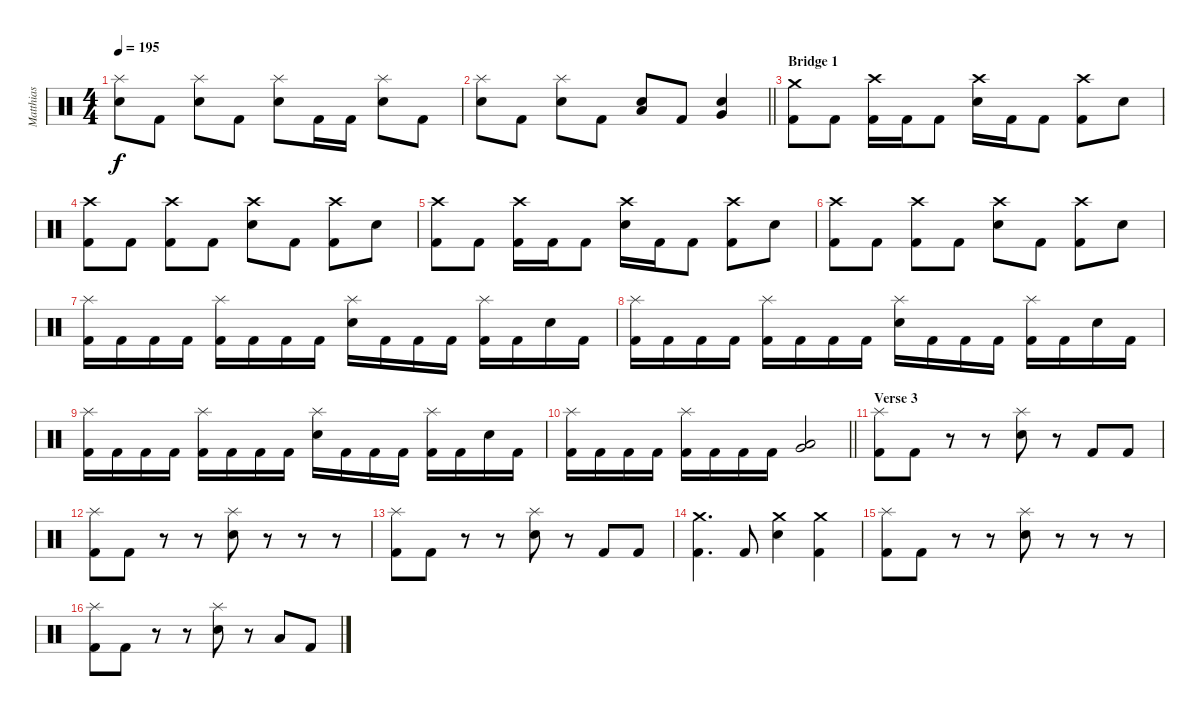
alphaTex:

\track ("Matthias" "Matthias") {instrument percussion}
\staff {score}
\articulation defaults
\ts (4 4)
\tempo 195
\clef neutral
\ks c
("Splash (hit)" "Electric Snare (hit)").8{dy f} "Kick (hit) 2".8 ("Splash (hit)" "Electric Snare (hit)").8 "Kick (hit) 2".8 ("Splash (hit)" "Electric Snare (hit)").8 "Kick (hit) 2".16 "Kick (hit) 2".16 ("Splash (hit)" "Electric Snare (hit)").8 "Kick (hit) 2".8 |
\barLineRight lightlight
("Splash (hit)" "Electric Snare (hit)").8 "Kick (hit) 2".8 ("Splash (hit)" "Electric Snare (hit)").8 "Kick (hit) 2".8 ("Low Tom (hit)" "Electric Snare (hit)").8 "Kick (hit) 2".8 ("Very Low Tom (hit)" "Electric Snare (hit)").4 |
\section ("" "Bridge 1")
("Crash medium (hit)" "Kick (hit) 2").8 "Kick (hit) 2".8 ("Crash high (hit)" "Kick (hit) 2").16 "Kick (hit) 2".16 "Kick (hit) 2".8 ("Crash high (hit)" "Electric Snare (hit)").16 "Kick (hit) 2".16 "Kick (hit) 2".8 ("Crash high (hit)" "Kick (hit) 2").8 "Electric Snare (hit)".8 |
("Crash high (hit)" "Kick (hit) 2").8 "Kick (hit) 2".8 ("Crash high (hit)" "Kick (hit) 2").8 "Kick (hit) 2".8 ("Crash high (hit)" "Electric Snare (hit)").8 "Kick (hit) 2".8 ("Crash high (hit)" "Kick (hit) 2").8 "Electric Snare (hit)".8 |
("Crash high (hit)" "Kick (hit) 2").8 "Kick (hit) 2".8 ("Crash high (hit)" "Kick (hit) 2").16 "Kick (hit) 2".16 "Kick (hit) 2".8 ("Crash high (hit)" "Electric Snare (hit)").16 "Kick (hit) 2".16 "Kick (hit) 2".8 ("Crash high (hit)" "Kick (hit) 2").8 "Electric Snare (hit)".8 |
("Crash high (hit)" "Kick (hit) 2").8 "Kick (hit) 2".8 ("Crash high (hit)" "Kick (hit) 2").8 "Kick (hit) 2".8 ("Crash high (hit)" "Electric Snare (hit)").8 "Kick (hit) 2".8 ("Crash high (hit)" "Kick (hit) 2").8 "Electric Snare (hit)".8 |
("Splash (hit)" "Kick (hit) 2").16 "Kick (hit) 2".16 "Kick (hit) 2".16 "Kick (hit) 2".16 ("Splash (hit)" "Kick (hit) 2").16 "Kick (hit) 2".16 "Kick (hit) 2".16 "Kick (hit) 2".16 ("Splash (hit)" "Electric Snare (hit)").16 "Kick (hit) 2".16 "Kick (hit) 2".16 "Kick (hit) 2".16 ("Splash (hit)" "Kick (hit) 2").16 "Kick (hit) 2".16 "Electric Snare (hit)".16 "Kick (hit) 2".16 |
("Splash (hit)" "Kick (hit) 2").16 "Kick (hit) 2".16 "Kick (hit) 2".16 "Kick (hit) 2".16 ("Splash (hit)" "Kick (hit) 2").16 "Kick (hit) 2".16 "Kick (hit) 2".16 "Kick (hit) 2".16 ("Splash (hit)" "Electric Snare (hit)").16 "Kick (hit) 2".16 "Kick (hit) 2".16 "Kick (hit) 2".16 ("Splash (hit)" "Kick (hit) 2").16 "Kick (hit) 2".16 "Electric Snare (hit)".16 "Kick (hit) 2".16 |
("Splash (hit)" "Kick (hit) 2").16 "Kick (hit) 2".16 "Kick (hit) 2".16 "Kick (hit) 2".16 ("Splash (hit)" "Kick (hit) 2").16 "Kick (hit) 2".16 "Kick (hit) 2".16 "Kick (hit) 2".16 ("Splash (hit)" "Electric Snare (hit)").16 "Kick (hit) 2".16 "Kick (hit) 2".16 "Kick (hit) 2".16 ("Splash (hit)" "Kick (hit) 2").16 "Kick (hit) 2".16 "Electric Snare (hit)".16 "Kick (hit) 2".16 |
\barLineRight lightlight
("Splash (hit)" "Kick (hit) 2").16 "Kick (hit) 2".16 "Kick (hit) 2".16 "Kick (hit) 2".16 ("Splash (hit)" "Kick (hit) 2").16 "Kick (hit) 2".16 "Kick (hit) 2".16 "Kick (hit) 2".16 ("Low Tom (hit)" "Very Low Tom (hit)").2 |
\section ("" "Verse 3")
("Splash (hit)" "Kick (hit) 2").8 "Kick (hit) 2".8 r.8 r.8 ("Splash (hit)" "Electric Snare (hit)").8 r.8 "Kick (hit) 2".8 "Kick (hit) 2".8 |
("Splash (hit)" "Kick (hit) 2").8 "Kick (hit) 2".8 r.8 r.8 ("Splash (hit)" "Electric Snare (hit)").8 r.8 r.8 r.8 |
("Splash (hit)" "Kick (hit) 2").8 "Kick (hit) 2".8 r.8 r.8 ("Splash (hit)" "Electric Snare (hit)").8 r.8 "Kick (hit) 2".8 "Kick (hit) 2".8 |
("Crash medium (hit)" "Kick (hit) 2").4{d} "Kick (hit) 2".8 ("Crash medium (hit)" "Electric Snare (hit)").4 ("Crash medium (hit)" "Kick (hit) 2").4 |
("Splash (hit)" "Kick (hit) 2").8 "Kick (hit) 2".8 r.8 r.8 ("Splash (hit)" "Electric Snare (hit)").8 r.8 r.8 r.8 |
("Splash (hit)" "Kick (hit) 2").8 "Kick (hit) 2".8 r.8 r.8 ("Splash (hit)" "Electric Snare (hit)").8 r.8 "Low Tom (hit)".8 "Kick (hit) 2".8
